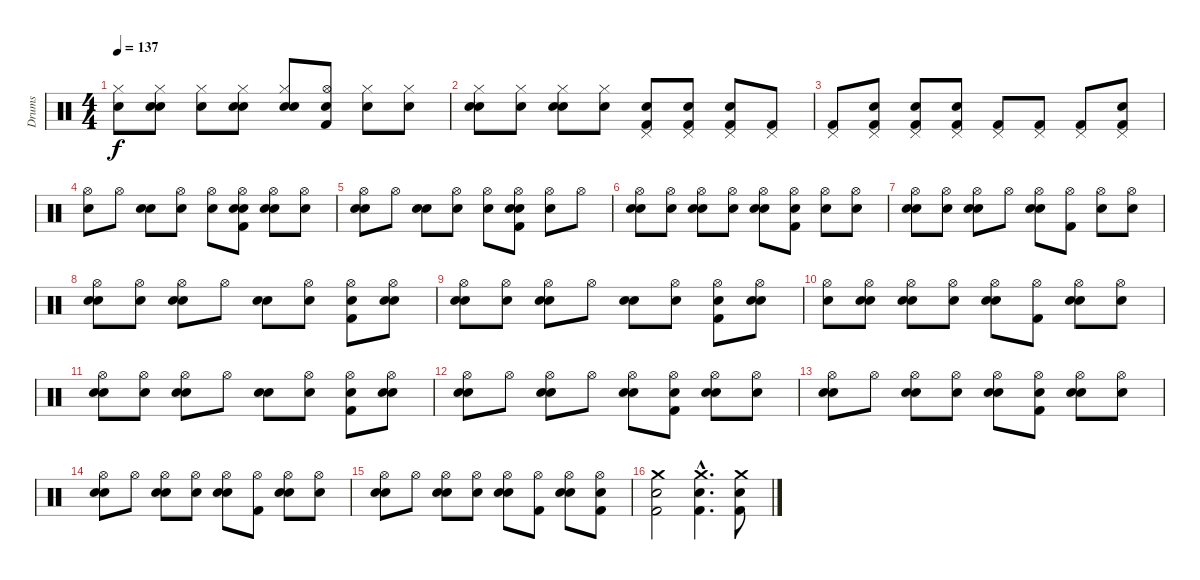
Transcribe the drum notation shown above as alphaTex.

\track ("Drums" "Drums") {instrument percussion}
\staff {score}
\articulation defaults
\ts (4 4)
\tempo 137
\clef neutral
\ks c
("Snare (hit)" "Hi-Hat (closed)").8{dy f} ("Snare (hit)" "Electric Snare (hit)" "Hi-Hat (closed)").8 ("Snare (hit)" "Hi-Hat (closed)").8 ("Snare (hit)" "Hi-Hat (closed)" "Electric Snare (hit)").8 ("Snare (hit)" "Hi-Hat (closed)" "Electric Snare (hit)").8 ("Snare (hit)" "Hi-Hat (open)" "Kick (hit) 2").8 ("Electric Snare (hit)" "Hi-Hat (closed)").8 ("Snare (hit)" "Hi-Hat (closed)").8 |
("Snare (hit)" "Electric Snare (hit)" "Hi-Hat (closed)").8 ("Snare (hit)" "Hi-Hat (closed)").8 ("Snare (hit)" "Electric Snare (hit)" "Hi-Hat (closed)").8 ("Snare (hit)" "Hi-Hat (closed)").8 ("Snare (hit)" "Kick (hit) 2" "Pedal Hi-Hat (hit)").8 ("Snare (hit)" "Kick (hit) 2" "Pedal Hi-Hat (hit)").8 ("Snare (hit)" "Pedal Hi-Hat (hit)" "Kick (hit) 2").8 ("Pedal Hi-Hat (hit)" "Kick (hit) 2").8 |
("Kick (hit) 2" "Pedal Hi-Hat (hit)").8 ("Snare (hit)" "Kick (hit) 2" "Pedal Hi-Hat (hit)").8 ("Snare (hit)" "Kick (hit) 2" "Pedal Hi-Hat (hit)").8 ("Snare (hit)" "Pedal Hi-Hat (hit)" "Kick (hit) 2").8 ("Pedal Hi-Hat (hit)" "Kick (hit) 2").8 ("Pedal Hi-Hat (hit)" "Kick (hit) 2").8 ("Kick (hit) 2" "Pedal Hi-Hat (hit)").8 ("Snare (hit)" "Pedal Hi-Hat (hit)" "Kick (hit) 2").8 |
("Hi-Hat (open)" "Electric Snare (hit)").8 "Hi-Hat (open)".8 ("Snare (hit)" "Electric Snare (hit)").8 ("Snare (hit)" "Hi-Hat (open)").8 ("Snare (hit)" "Hi-Hat (open)").8 ("Snare (hit)" "Hi-Hat (open)" "Electric Snare (hit)" "Kick (hit) 2").8 ("Snare (hit)" "Electric Snare (hit)" "Hi-Hat (open)").8 ("Snare (hit)" "Hi-Hat (open)").8 |
("Snare (hit)" "Hi-Hat (open)" "Electric Snare (hit)").8 "Hi-Hat (open)".8 ("Snare (hit)" "Electric Snare (hit)").8 ("Snare (hit)" "Hi-Hat (open)").8 ("Snare (hit)" "Hi-Hat (open)").8 ("Snare (hit)" "Hi-Hat (open)" "Electric Snare (hit)" "Kick (hit) 2").8 ("Hi-Hat (open)" "Electric Snare (hit)").8 "Hi-Hat (open)".8 |
("Snare (hit)" "Electric Snare (hit)" "Hi-Hat (open)").8 ("Snare (hit)" "Hi-Hat (open)").8 ("Snare (hit)" "Electric Snare (hit)" "Hi-Hat (open)").8 ("Snare (hit)" "Hi-Hat (open)").8 ("Snare (hit)" "Electric Snare (hit)" "Hi-Hat (open)").8 ("Snare (hit)" "Hi-Hat (open)" "Kick (hit) 2").8 ("Electric Snare (hit)" "Hi-Hat (open)").8 ("Snare (hit)" "Hi-Hat (open)").8 |
("Snare (hit)" "Electric Snare (hit)" "Hi-Hat (open)").8 ("Snare (hit)" "Hi-Hat (open)").8 ("Snare (hit)" "Hi-Hat (open)" "Electric Snare (hit)").8 "Hi-Hat (open)".8 ("Snare (hit)" "Hi-Hat (open)" "Electric Snare (hit)").8 ("Hi-Hat (open)" "Kick (hit) 2").8 ("Electric Snare (hit)" "Hi-Hat (open)").8 ("Snare (hit)" "Hi-Hat (open)").8 |
("Snare (hit)" "Electric Snare (hit)" "Hi-Hat (open)").8 ("Snare (hit)" "Hi-Hat (open)").8 ("Snare (hit)" "Hi-Hat (open)" "Electric Snare (hit)").8 "Hi-Hat (open)".8 ("Snare (hit)" "Electric Snare (hit)").8 ("Snare (hit)" "Hi-Hat (open)").8 ("Snare (hit)" "Kick (hit) 2" "Hi-Hat (open)").8 ("Snare (hit)" "Hi-Hat (open)" "Electric Snare (hit)").8 |
("Snare (hit)" "Electric Snare (hit)" "Hi-Hat (open)").8 ("Snare (hit)" "Hi-Hat (open)").8 ("Snare (hit)" "Hi-Hat (open)" "Electric Snare (hit)").8 "Hi-Hat (open)".8 ("Snare (hit)" "Electric Snare (hit)").8 ("Snare (hit)" "Hi-Hat (open)").8 ("Snare (hit)" "Kick (hit) 2" "Hi-Hat (open)").8 ("Snare (hit)" "Electric Snare (hit)" "Hi-Hat (open)").8 |
("Snare (hit)" "Hi-Hat (open)").8 ("Snare (hit)" "Hi-Hat (open)" "Electric Snare (hit)").8 ("Snare (hit)" "Electric Snare (hit)" "Hi-Hat (open)").8 ("Snare (hit)" "Hi-Hat (open)").8 ("Snare (hit)" "Hi-Hat (open)" "Electric Snare (hit)").8 ("Kick (hit) 2" "Hi-Hat (open)").8 ("Snare (hit)" "Electric Snare (hit)" "Hi-Hat (open)").8 ("Snare (hit)" "Hi-Hat (open)").8 |
("Snare (hit)" "Electric Snare (hit)" "Hi-Hat (open)").8 ("Snare (hit)" "Hi-Hat (open)").8 ("Snare (hit)" "Hi-Hat (open)" "Electric Snare (hit)").8 "Hi-Hat (open)".8 ("Snare (hit)" "Electric Snare (hit)").8 ("Snare (hit)" "Hi-Hat (open)").8 ("Snare (hit)" "Kick (hit) 2" "Hi-Hat (open)").8 ("Snare (hit)" "Hi-Hat (open)" "Electric Snare (hit)").8 |
("Snare (hit)" "Hi-Hat (open)" "Electric Snare (hit)").8 "Hi-Hat (open)".8 ("Snare (hit)" "Hi-Hat (open)" "Electric Snare (hit)").8 "Hi-Hat (open)".8 ("Snare (hit)" "Electric Snare (hit)" "Hi-Hat (open)").8 ("Snare (hit)" "Kick (hit) 2" "Hi-Hat (open)").8 ("Snare (hit)" "Electric Snare (hit)" "Hi-Hat (open)").8 ("Snare (hit)" "Hi-Hat (open)").8 |
("Snare (hit)" "Hi-Hat (open)" "Electric Snare (hit)").8 "Hi-Hat (open)".8 ("Snare (hit)" "Electric Snare (hit)" "Hi-Hat (open)").8 ("Snare (hit)" "Hi-Hat (open)").8 ("Snare (hit)" "Electric Snare (hit)" "Hi-Hat (open)").8 ("Snare (hit)" "Kick (hit) 2" "Hi-Hat (open)").8 ("Snare (hit)" "Electric Snare (hit)" "Hi-Hat (open)").8 ("Snare (hit)" "Hi-Hat (open)").8 |
("Snare (hit)" "Hi-Hat (open)" "Electric Snare (hit)").8 "Hi-Hat (open)".8 ("Snare (hit)" "Hi-Hat (open)" "Electric Snare (hit)").8 ("Snare (hit)" "Hi-Hat (open)").8 ("Snare (hit)" "Hi-Hat (open)" "Electric Snare (hit)").8 ("Kick (hit) 2" "Hi-Hat (open)").8 ("Snare (hit)" "Electric Snare (hit)" "Hi-Hat (open)").8 ("Snare (hit)" "Hi-Hat (open)").8 |
("Snare (hit)" "Hi-Hat (open)" "Electric Snare (hit)").8 "Hi-Hat (open)".8 ("Snare (hit)" "Electric Snare (hit)" "Hi-Hat (open)").8 ("Snare (hit)" "Hi-Hat (open)").8 ("Snare (hit)" "Hi-Hat (open)" "Electric Snare (hit)").8 ("Kick (hit) 2" "Hi-Hat (open)").8 ("Snare (hit)" "Hi-Hat (open)" "Electric Snare (hit)").8 ("Snare (hit)" "Kick (hit) 2" "Hi-Hat (open)").8 |
("Snare (hit)" "Crash medium (hit)" "Kick (hit) 2").2 ("Snare (hit)"{hac} "Crash medium (hit)"{hac} "Kick (hit) 2"{hac}).4{d} ("Snare (hit)" "Kick (hit) 2" "Crash medium (hit)").8
